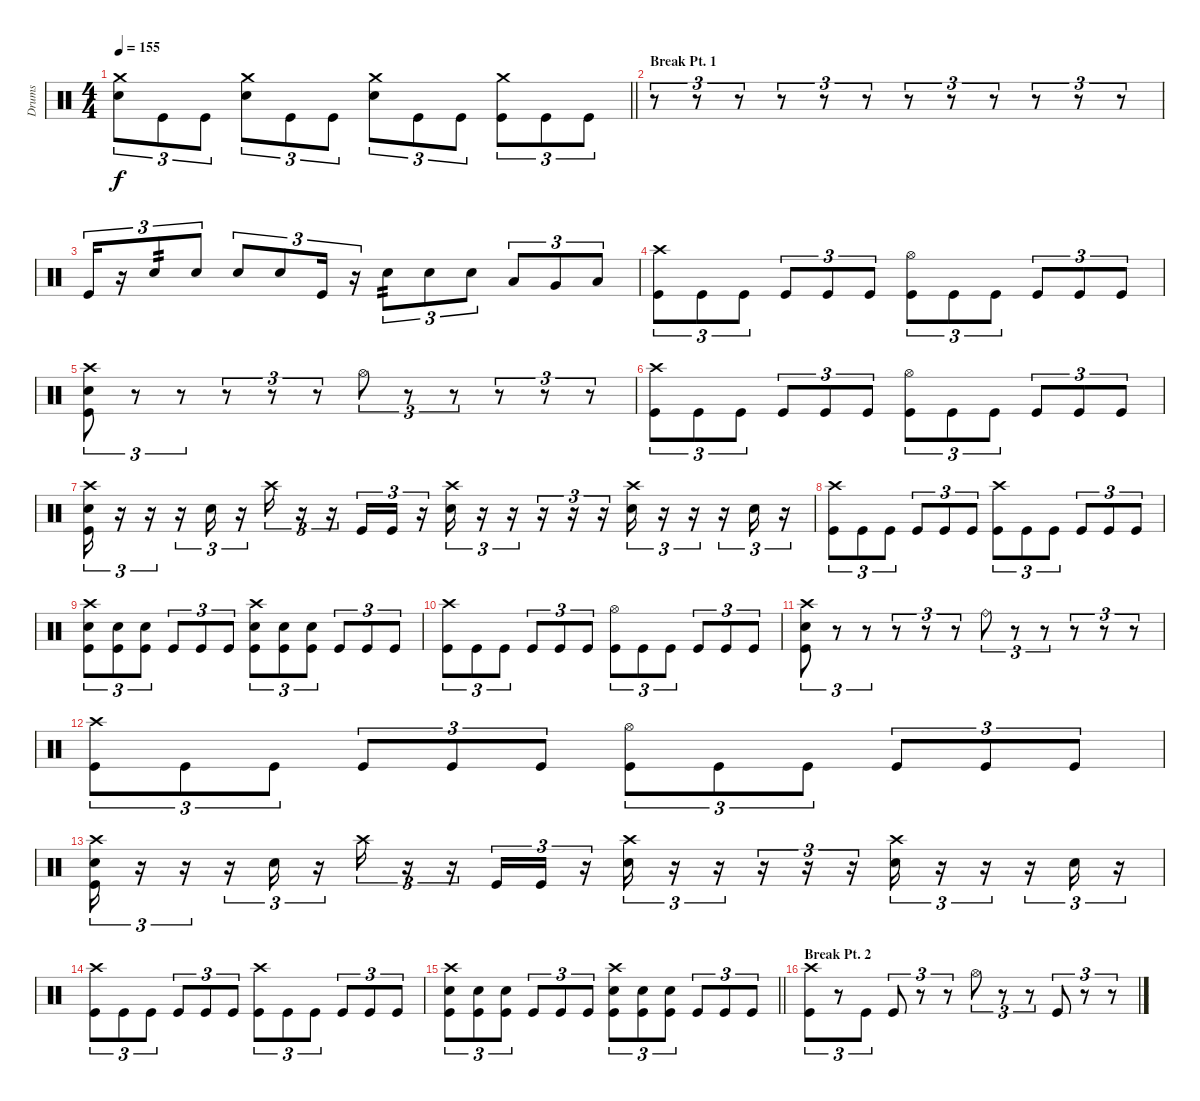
\track ("Drums" "Drums") {instrument percussion}
\staff {score}
\articulation defaults
\ts (4 4)
\tempo 155
\clef neutral
\barLineRight lightlight
\ks c
("Crash medium (hit)" "Electric Snare (hit)").8{tu (3 2) dy f} "Kick (hit)".8{tu (3 2)} "Kick (hit)".8{tu (3 2)} ("Crash medium (hit)" "Electric Snare (hit)").8{tu (3 2)} "Kick (hit)".8{tu (3 2)} "Kick (hit)".8{tu (3 2)} ("Crash medium (hit)" "Electric Snare (hit)").8{tu (3 2)} "Kick (hit)".8{tu (3 2)} "Kick (hit)".8{tu (3 2)} ("Crash medium (hit)" "Kick (hit)").8{tu (3 2)} "Kick (hit)".8{tu (3 2)} "Kick (hit)".8{tu (3 2)} |
\section ("" "Break Pt. 1")
r.8{tu (3 2)} r.8{tu (3 2)} r.8{tu (3 2)} r.8{tu (3 2)} r.8{tu (3 2)} r.8{tu (3 2)} r.8{tu (3 2)} r.8{tu (3 2)} r.8{tu (3 2)} r.8{tu (3 2)} r.8{tu (3 2)} r.8{tu (3 2)} |
"Kick (hit)".16{tu (3 2)} r.16{tu (3 2)} "Electric Snare (hit)".8{tu (3 2) tp 2} "Electric Snare (hit)".8{tu (3 2)} "Electric Snare (hit)".8{tu (3 2)} "Electric Snare (hit)".8{tu (3 2)} "Kick (hit)".16{tu (3 2)} r.16{tu (3 2)} "Electric Snare (hit)".8{tu (3 2) tp 2} "Electric Snare (hit)".8{tu (3 2)} "Electric Snare (hit)".8{tu (3 2)} "Low Tom (hit)".8{tu (3 2)} "Very Low Tom (hit)".8{tu (3 2)} "Low Floor Tom (hit)".8{tu (3 2)} |
("Crash high (hit)" "Kick (hit)").8{tu (3 2)} "Kick (hit)".8{tu (3 2)} "Kick (hit)".8{tu (3 2)} "Kick (hit)".8{tu (3 2)} "Kick (hit)".8{tu (3 2)} "Kick (hit)".8{tu (3 2)} ("Hi-Hat (open)" "Kick (hit)").8{tu (3 2)} "Kick (hit)".8{tu (3 2)} "Kick (hit)".8{tu (3 2)} "Kick (hit)".8{tu (3 2)} "Kick (hit)".8{tu (3 2)} "Kick (hit)".8{tu (3 2)} |
("Crash high (hit)" "Electric Snare (hit)" "Kick (hit)").8{tu (3 2)} r.8{tu (3 2)} r.8{tu (3 2)} r.8{tu (3 2)} r.8{tu (3 2)} r.8{tu (3 2)} "Hi-Hat (open)".8{tu (3 2)} r.8{tu (3 2)} r.8{tu (3 2)} r.8{tu (3 2)} r.8{tu (3 2)} r.8{tu (3 2)} |
("Crash high (hit)" "Kick (hit)").8{tu (3 2)} "Kick (hit)".8{tu (3 2)} "Kick (hit)".8{tu (3 2)} "Kick (hit)".8{tu (3 2)} "Kick (hit)".8{tu (3 2)} "Kick (hit)".8{tu (3 2)} ("Hi-Hat (open)" "Kick (hit)").8{tu (3 2)} "Kick (hit)".8{tu (3 2)} "Kick (hit)".8{tu (3 2)} "Kick (hit)".8{tu (3 2)} "Kick (hit)".8{tu (3 2)} "Kick (hit)".8{tu (3 2)} |
("Crash high (hit)" "Electric Snare (hit)" "Kick (hit)").16{tu (3 2)} r.16{tu (3 2)} r.16{tu (3 2)} r.16{tu (3 2)} "Electric Snare (hit)".16{tu (3 2)} r.16{tu (3 2)} "Crash high (hit)".16{tu (3 2)} r.16{tu (3 2)} r.16{tu (3 2)} "Kick (hit)".16{tu (3 2)} "Kick (hit)".16{tu (3 2)} r.16{tu (3 2)} ("Crash high (hit)" "Electric Snare (hit)").16{tu (3 2)} r.16{tu (3 2)} r.16{tu (3 2)} r.16{tu (3 2)} r.16{tu (3 2)} r.16{tu (3 2)} ("Crash high (hit)" "Electric Snare (hit)").16{tu (3 2)} r.16{tu (3 2)} r.16{tu (3 2)} r.16{tu (3 2)} "Electric Snare (hit)".16{tu (3 2)} r.16{tu (3 2)} |
("Crash high (hit)" "Kick (hit)").8{tu (3 2)} "Kick (hit)".8{tu (3 2)} "Kick (hit)".8{tu (3 2)} "Kick (hit)".8{tu (3 2)} "Kick (hit)".8{tu (3 2)} "Kick (hit)".8{tu (3 2)} ("Crash high (hit)" "Kick (hit)").8{tu (3 2)} "Kick (hit)".8{tu (3 2)} "Kick (hit)".8{tu (3 2)} "Kick (hit)".8{tu (3 2)} "Kick (hit)".8{tu (3 2)} "Kick (hit)".8{tu (3 2)} |
("Crash high (hit)" "Electric Snare (hit)" "Kick (hit)").8{tu (3 2)} ("Electric Snare (hit)" "Kick (hit)").8{tu (3 2)} ("Electric Snare (hit)" "Kick (hit)").8{tu (3 2)} "Kick (hit)".8{tu (3 2)} "Kick (hit)".8{tu (3 2)} "Kick (hit)".8{tu (3 2)} ("Crash high (hit)" "Electric Snare (hit)" "Kick (hit)").8{tu (3 2)} ("Electric Snare (hit)" "Kick (hit)").8{tu (3 2)} ("Electric Snare (hit)" "Kick (hit)").8{tu (3 2)} "Kick (hit)".8{tu (3 2)} "Kick (hit)".8{tu (3 2)} "Kick (hit)".8{tu (3 2)} |
("Crash high (hit)" "Kick (hit)").8{tu (3 2)} "Kick (hit)".8{tu (3 2)} "Kick (hit)".8{tu (3 2)} "Kick (hit)".8{tu (3 2)} "Kick (hit)".8{tu (3 2)} "Kick (hit)".8{tu (3 2)} ("Hi-Hat (open)" "Kick (hit)").8{tu (3 2)} "Kick (hit)".8{tu (3 2)} "Kick (hit)".8{tu (3 2)} "Kick (hit)".8{tu (3 2)} "Kick (hit)".8{tu (3 2)} "Kick (hit)".8{tu (3 2)} |
("Crash high (hit)" "Electric Snare (hit)" "Kick (hit)").8{tu (3 2)} r.8{tu (3 2)} r.8{tu (3 2)} r.8{tu (3 2)} r.8{tu (3 2)} r.8{tu (3 2)} "Ride (bell)".8{tu (3 2)} r.8{tu (3 2)} r.8{tu (3 2)} r.8{tu (3 2)} r.8{tu (3 2)} r.8{tu (3 2)} |
("Crash high (hit)" "Kick (hit)").8{tu (3 2)} "Kick (hit)".8{tu (3 2)} "Kick (hit)".8{tu (3 2)} "Kick (hit)".8{tu (3 2)} "Kick (hit)".8{tu (3 2)} "Kick (hit)".8{tu (3 2)} ("Hi-Hat (open)" "Kick (hit)").8{tu (3 2)} "Kick (hit)".8{tu (3 2)} "Kick (hit)".8{tu (3 2)} "Kick (hit)".8{tu (3 2)} "Kick (hit)".8{tu (3 2)} "Kick (hit)".8{tu (3 2)} |
("Crash high (hit)" "Electric Snare (hit)" "Kick (hit)").16{tu (3 2)} r.16{tu (3 2)} r.16{tu (3 2)} r.16{tu (3 2)} "Electric Snare (hit)".16{tu (3 2)} r.16{tu (3 2)} "Crash high (hit)".16{tu (3 2)} r.16{tu (3 2)} r.16{tu (3 2)} "Kick (hit)".16{tu (3 2)} "Kick (hit)".16{tu (3 2)} r.16{tu (3 2)} ("Crash high (hit)" "Electric Snare (hit)").16{tu (3 2)} r.16{tu (3 2)} r.16{tu (3 2)} r.16{tu (3 2)} r.16{tu (3 2)} r.16{tu (3 2)} ("Crash high (hit)" "Electric Snare (hit)").16{tu (3 2)} r.16{tu (3 2)} r.16{tu (3 2)} r.16{tu (3 2)} "Electric Snare (hit)".16{tu (3 2)} r.16{tu (3 2)} |
("Crash high (hit)" "Kick (hit)").8{tu (3 2)} "Kick (hit)".8{tu (3 2)} "Kick (hit)".8{tu (3 2)} "Kick (hit)".8{tu (3 2)} "Kick (hit)".8{tu (3 2)} "Kick (hit)".8{tu (3 2)} ("Crash high (hit)" "Kick (hit)").8{tu (3 2)} "Kick (hit)".8{tu (3 2)} "Kick (hit)".8{tu (3 2)} "Kick (hit)".8{tu (3 2)} "Kick (hit)".8{tu (3 2)} "Kick (hit)".8{tu (3 2)} |
\barLineRight lightlight
("Crash high (hit)" "Electric Snare (hit)" "Kick (hit)").8{tu (3 2)} ("Electric Snare (hit)" "Kick (hit)").8{tu (3 2)} ("Electric Snare (hit)" "Kick (hit)").8{tu (3 2)} "Kick (hit)".8{tu (3 2)} "Kick (hit)".8{tu (3 2)} "Kick (hit)".8{tu (3 2)} ("Crash high (hit)" "Electric Snare (hit)" "Kick (hit)").8{tu (3 2)} ("Electric Snare (hit)" "Kick (hit)").8{tu (3 2)} ("Electric Snare (hit)" "Kick (hit)").8{tu (3 2)} "Kick (hit)".8{tu (3 2)} "Kick (hit)".8{tu (3 2)} "Kick (hit)".8{tu (3 2)} |
\section ("" "Break Pt. 2")
("Crash high (hit)" "Kick (hit)").8{tu (3 2)} r.8{tu (3 2)} "Kick (hit)".8{tu (3 2)} "Kick (hit)".8{tu (3 2)} r.8{tu (3 2)} r.8{tu (3 2)} "Hi-Hat (open)".8{tu (3 2)} r.8{tu (3 2)} r.8{tu (3 2)} "Kick (hit)".8{tu (3 2)} r.8{tu (3 2)} r.8{tu (3 2)}
